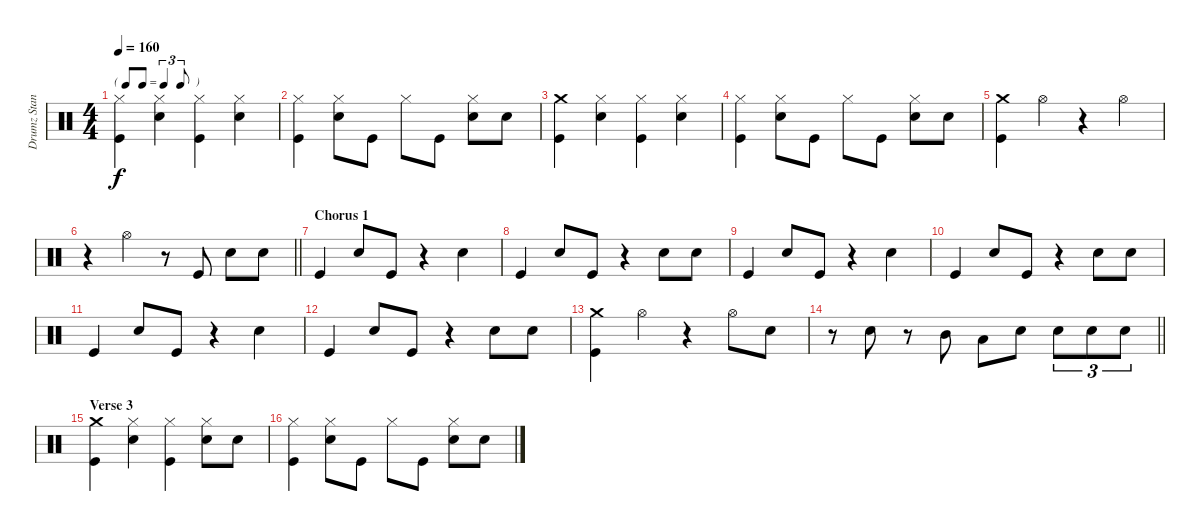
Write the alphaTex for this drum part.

\track ("Drumz Standard" "Drumz Stan") {instrument percussion}
\staff {score}
\articulation defaults
\ts (4 4)
\tf triplet8th
\tempo 160
\clef neutral
\ks c
("Hi-Hat (closed)" "Kick (hit)").4{dy f} ("Hi-Hat (closed)" "Electric Snare (hit)").4 ("Hi-Hat (closed)" "Kick (hit)").4 ("Hi-Hat (closed)" "Electric Snare (hit)").4 |
("Hi-Hat (closed)" "Kick (hit)").4 ("Hi-Hat (closed)" "Electric Snare (hit)").8 "Kick (hit)".8 "Hi-Hat (closed)".8 "Kick (hit)".8 ("Hi-Hat (closed)" "Electric Snare (hit)").8 "Electric Snare (hit)".8 |
("Crash medium (hit)" "Kick (hit)").4 ("Hi-Hat (closed)" "Electric Snare (hit)").4 ("Hi-Hat (closed)" "Kick (hit)").4 ("Hi-Hat (closed)" "Electric Snare (hit)").4 |
("Hi-Hat (closed)" "Kick (hit)").4 ("Hi-Hat (closed)" "Electric Snare (hit)").8 "Kick (hit)".8 "Hi-Hat (closed)".8 "Kick (hit)".8 ("Hi-Hat (closed)" "Electric Snare (hit)").8 "Electric Snare (hit)".8 |
("Crash medium (hit)" "Kick (hit)").4 "Hi-Hat (open)".4 r.4 "Hi-Hat (open)".4 |
\barLineRight lightlight
r.4 "Hi-Hat (open)".4 r.8 "Kick (hit)".8 "Electric Snare (hit)".8 "Electric Snare (hit)".8 |
\section ("" "Chorus 1")
"Kick (hit)".4 "Electric Snare (hit)".8 "Kick (hit)".8 r.4 "Electric Snare (hit)".4 |
"Kick (hit)".4 "Electric Snare (hit)".8 "Kick (hit)".8 r.4 "Electric Snare (hit)".8 "Electric Snare (hit)".8 |
"Kick (hit)".4 "Electric Snare (hit)".8 "Kick (hit)".8 r.4 "Electric Snare (hit)".4 |
"Kick (hit)".4 "Electric Snare (hit)".8 "Kick (hit)".8 r.4 "Electric Snare (hit)".8 "Electric Snare (hit)".8 |
"Kick (hit)".4 "Electric Snare (hit)".8 "Kick (hit)".8 r.4 "Electric Snare (hit)".4 |
"Kick (hit)".4 "Electric Snare (hit)".8 "Kick (hit)".8 r.4 "Electric Snare (hit)".8 "Electric Snare (hit)".8 |
("Crash medium (hit)" "Kick (hit)").4 "Hi-Hat (open)".4 r.4 "Hi-Hat (open)".8 "Electric Snare (hit)".8 |
\barLineRight lightlight
r.8 "Electric Snare (hit)".8 r.8 "Mid Tom (hit)".8 "Low Tom (hit)".8 "Electric Snare (hit)".8 "Electric Snare (hit)".8{tu (3 2)} "Electric Snare (hit)".8{tu (3 2)} "Electric Snare (hit)".8{tu (3 2)} |
\section ("" "Verse 3")
("Crash medium (hit)" "Kick (hit)").4 ("Hi-Hat (closed)" "Electric Snare (hit)").4 ("Hi-Hat (closed)" "Kick (hit)").4 ("Hi-Hat (closed)" "Electric Snare (hit)").8 "Electric Snare (hit)".8 |
("Hi-Hat (closed)" "Kick (hit)").4 ("Hi-Hat (closed)" "Electric Snare (hit)").8 "Kick (hit)".8 "Hi-Hat (closed)".8 "Kick (hit)".8 ("Hi-Hat (closed)" "Electric Snare (hit)").8 "Electric Snare (hit)".8
